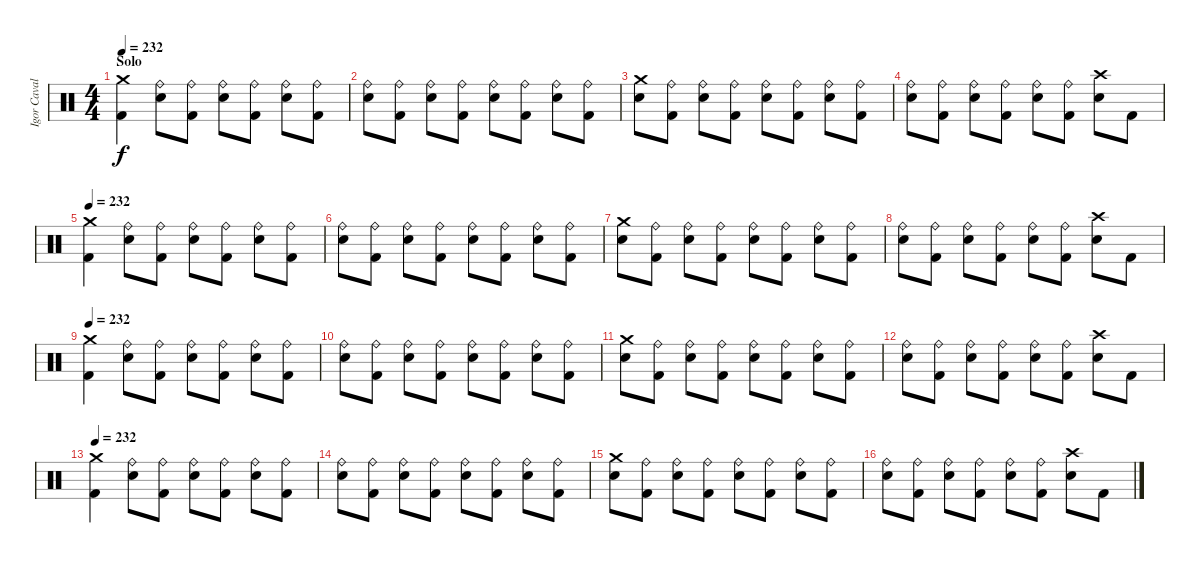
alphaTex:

\track ("Igor Cavalera" "Igor Caval") {instrument percussion}
\staff {score}
\articulation defaults
\ts (4 4)
\section ("" "Solo")
\tempo 232
\clef neutral
\ks c
("Kick (hit) 2" "Crash medium (hit)").4{dy f} ("Snare (hit) 2" "Ride (bell)").8 ("Kick (hit) 2" "Ride (bell)").8 ("Snare (hit) 2" "Ride (bell)").8 ("Kick (hit) 2" "Ride (bell)").8 ("Snare (hit) 2" "Ride (bell)").8 ("Kick (hit) 2" "Ride (bell)").8 |
("Snare (hit) 2" "Ride (bell)").8 ("Kick (hit) 2" "Ride (bell)").8 ("Snare (hit) 2" "Ride (bell)").8 ("Kick (hit) 2" "Ride (bell)").8 ("Snare (hit) 2" "Ride (bell)").8 ("Kick (hit) 2" "Ride (bell)").8 ("Snare (hit) 2" "Ride (bell)").8 ("Kick (hit) 2" "Ride (bell)").8 |
("Snare (hit) 2" "Crash medium (hit)").8 ("Kick (hit) 2" "Ride (bell)").8 ("Snare (hit) 2" "Ride (bell)").8 ("Kick (hit) 2" "Ride (bell)").8 ("Snare (hit) 2" "Ride (bell)").8 ("Kick (hit) 2" "Ride (bell)").8 ("Snare (hit) 2" "Ride (bell)").8 ("Kick (hit) 2" "Ride (bell)").8 |
("Snare (hit) 2" "Ride (bell)").8 ("Kick (hit) 2" "Ride (bell)").8 ("Snare (hit) 2" "Ride (bell)").8 ("Kick (hit) 2" "Ride (bell)").8 ("Snare (hit) 2" "Ride (bell)").8 ("Kick (hit) 2" "Ride (bell)").8 ("Snare (hit) 2" "Crash high (hit)").8 "Kick (hit) 2".8 |
\tempo 232
("Kick (hit) 2" "Crash medium (hit)").4 ("Snare (hit) 2" "Ride (bell)").8 ("Kick (hit) 2" "Ride (bell)").8 ("Snare (hit) 2" "Ride (bell)").8 ("Kick (hit) 2" "Ride (bell)").8 ("Snare (hit) 2" "Ride (bell)").8 ("Kick (hit) 2" "Ride (bell)").8 |
("Snare (hit) 2" "Ride (bell)").8 ("Kick (hit) 2" "Ride (bell)").8 ("Snare (hit) 2" "Ride (bell)").8 ("Kick (hit) 2" "Ride (bell)").8 ("Snare (hit) 2" "Ride (bell)").8 ("Kick (hit) 2" "Ride (bell)").8 ("Snare (hit) 2" "Ride (bell)").8 ("Kick (hit) 2" "Ride (bell)").8 |
("Snare (hit) 2" "Crash medium (hit)").8 ("Kick (hit) 2" "Ride (bell)").8 ("Snare (hit) 2" "Ride (bell)").8 ("Kick (hit) 2" "Ride (bell)").8 ("Snare (hit) 2" "Ride (bell)").8 ("Kick (hit) 2" "Ride (bell)").8 ("Snare (hit) 2" "Ride (bell)").8 ("Kick (hit) 2" "Ride (bell)").8 |
("Snare (hit) 2" "Ride (bell)").8 ("Kick (hit) 2" "Ride (bell)").8 ("Snare (hit) 2" "Ride (bell)").8 ("Kick (hit) 2" "Ride (bell)").8 ("Snare (hit) 2" "Ride (bell)").8 ("Kick (hit) 2" "Ride (bell)").8 ("Snare (hit) 2" "Crash high (hit)").8 "Kick (hit) 2".8 |
\tempo 232
("Kick (hit) 2" "Crash medium (hit)").4 ("Snare (hit) 2" "Ride (bell)").8 ("Kick (hit) 2" "Ride (bell)").8 ("Snare (hit) 2" "Ride (bell)").8 ("Kick (hit) 2" "Ride (bell)").8 ("Snare (hit) 2" "Ride (bell)").8 ("Kick (hit) 2" "Ride (bell)").8 |
("Snare (hit) 2" "Ride (bell)").8 ("Kick (hit) 2" "Ride (bell)").8 ("Snare (hit) 2" "Ride (bell)").8 ("Kick (hit) 2" "Ride (bell)").8 ("Snare (hit) 2" "Ride (bell)").8 ("Kick (hit) 2" "Ride (bell)").8 ("Snare (hit) 2" "Ride (bell)").8 ("Kick (hit) 2" "Ride (bell)").8 |
("Snare (hit) 2" "Crash medium (hit)").8 ("Kick (hit) 2" "Ride (bell)").8 ("Snare (hit) 2" "Ride (bell)").8 ("Kick (hit) 2" "Ride (bell)").8 ("Snare (hit) 2" "Ride (bell)").8 ("Kick (hit) 2" "Ride (bell)").8 ("Snare (hit) 2" "Ride (bell)").8 ("Kick (hit) 2" "Ride (bell)").8 |
("Snare (hit) 2" "Ride (bell)").8 ("Kick (hit) 2" "Ride (bell)").8 ("Snare (hit) 2" "Ride (bell)").8 ("Kick (hit) 2" "Ride (bell)").8 ("Snare (hit) 2" "Ride (bell)").8 ("Kick (hit) 2" "Ride (bell)").8 ("Snare (hit) 2" "Crash high (hit)").8 "Kick (hit) 2".8 |
\tempo 232
("Kick (hit) 2" "Crash medium (hit)").4 ("Snare (hit) 2" "Ride (bell)").8 ("Kick (hit) 2" "Ride (bell)").8 ("Snare (hit) 2" "Ride (bell)").8 ("Kick (hit) 2" "Ride (bell)").8 ("Snare (hit) 2" "Ride (bell)").8 ("Kick (hit) 2" "Ride (bell)").8 |
("Snare (hit) 2" "Ride (bell)").8 ("Kick (hit) 2" "Ride (bell)").8 ("Snare (hit) 2" "Ride (bell)").8 ("Kick (hit) 2" "Ride (bell)").8 ("Snare (hit) 2" "Ride (bell)").8 ("Kick (hit) 2" "Ride (bell)").8 ("Snare (hit) 2" "Ride (bell)").8 ("Kick (hit) 2" "Ride (bell)").8 |
("Snare (hit) 2" "Crash medium (hit)").8 ("Kick (hit) 2" "Ride (bell)").8 ("Snare (hit) 2" "Ride (bell)").8 ("Kick (hit) 2" "Ride (bell)").8 ("Snare (hit) 2" "Ride (bell)").8 ("Kick (hit) 2" "Ride (bell)").8 ("Snare (hit) 2" "Ride (bell)").8 ("Kick (hit) 2" "Ride (bell)").8 |
("Snare (hit) 2" "Ride (bell)").8 ("Kick (hit) 2" "Ride (bell)").8 ("Snare (hit) 2" "Ride (bell)").8 ("Kick (hit) 2" "Ride (bell)").8 ("Snare (hit) 2" "Ride (bell)").8 ("Kick (hit) 2" "Ride (bell)").8 ("Snare (hit) 2" "Crash high (hit)").8 "Kick (hit) 2".8
